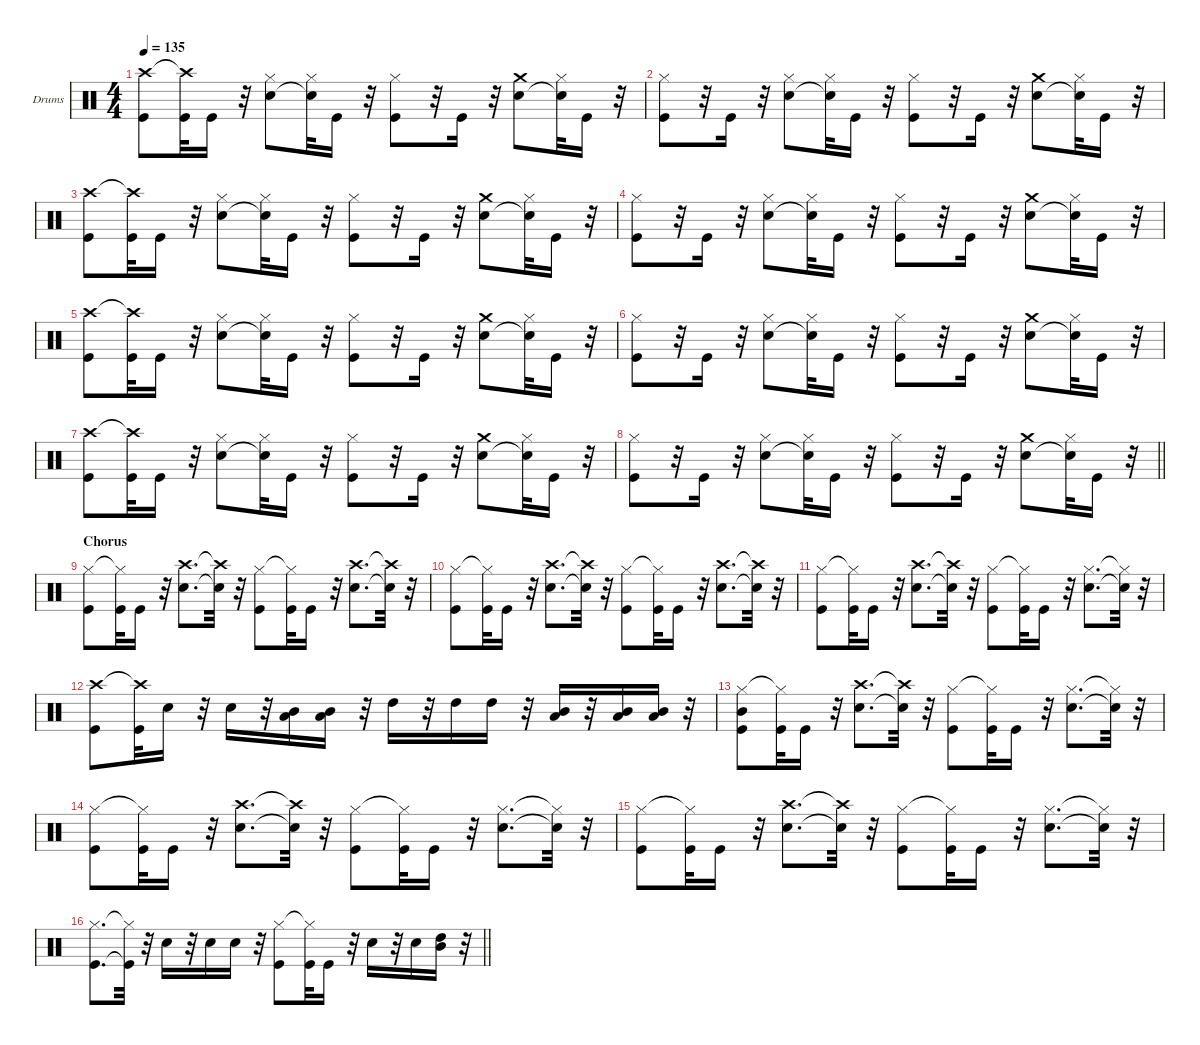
\hideDynamics
\bracketExtendMode groupsimilarinstruments
\firstSystemTrackNameOrientation horizontal
\otherSystemsTrackNameOrientation horizontal
\track ("Drumkit" "Drums") {solo instrument percussion}
\staff {score}
\articulation defaults
\ts (4 4)
\tempo 135
\clef neutral
\scale
0.333333
\ks c
("Crash high (hit)" "Kick (hit)").8{dy fff} ("Crash high (hit)"{t} "Kick (hit)").32 "Kick (hit)".16 r.32 ("Hi-Hat (closed)" "Snare (hit) 2").8 ("Hi-Hat (closed)" "Snare (hit) 2"{t}).32 "Kick (hit)".16 r.32 ("Hi-Hat (closed)" "Kick (hit)").8 r.32 "Kick (hit)".16 r.32 ("Crash medium (hit)" "Snare (hit) 2").8 ("Hi-Hat (closed)" "Snare (hit) 2"{t}).32 "Kick (hit)".16 r.32 |
\scale
0.333333 ("Kick (hit)" "Hi-Hat (closed)").8 r.32 "Kick (hit)".16 r.32 ("Hi-Hat (closed)" "Snare (hit) 2").8 ("Hi-Hat (closed)" "Snare (hit) 2"{t}).32 "Kick (hit)".16 r.32 ("Hi-Hat (closed)" "Kick (hit)").8 r.32 "Kick (hit)".16 r.32 ("Crash medium (hit)" "Snare (hit) 2").8 ("Hi-Hat (closed)" "Snare (hit) 2"{t}).32 "Kick (hit)".16 r.32 |
\scale
0.333333 ("Crash high (hit)" "Kick (hit)").8 ("Crash high (hit)"{t} "Kick (hit)").32 "Kick (hit)".16 r.32 ("Hi-Hat (closed)" "Snare (hit) 2").8 ("Hi-Hat (closed)" "Snare (hit) 2"{t}).32 "Kick (hit)".16 r.32 ("Hi-Hat (closed)" "Kick (hit)").8 r.32 "Kick (hit)".16 r.32 ("Crash medium (hit)" "Snare (hit) 2").8 ("Hi-Hat (closed)" "Snare (hit) 2"{t}).32 "Kick (hit)".16 r.32 |
\scale
0.333333 ("Kick (hit)" "Hi-Hat (closed)").8 r.32 "Kick (hit)".16 r.32 ("Hi-Hat (closed)" "Snare (hit) 2").8 ("Hi-Hat (closed)" "Snare (hit) 2"{t}).32 "Kick (hit)".16 r.32 ("Hi-Hat (closed)" "Kick (hit)").8 r.32 "Kick (hit)".16 r.32 ("Crash medium (hit)" "Snare (hit) 2").8 ("Hi-Hat (closed)" "Snare (hit) 2"{t}).32 "Kick (hit)".16 r.32 |
\scale
0.333333 ("Crash high (hit)" "Kick (hit)").8 ("Crash high (hit)"{t} "Kick (hit)").32 "Kick (hit)".16 r.32 ("Hi-Hat (closed)" "Snare (hit) 2").8 ("Hi-Hat (closed)" "Snare (hit) 2"{t}).32 "Kick (hit)".16 r.32 ("Hi-Hat (closed)" "Kick (hit)").8 r.32 "Kick (hit)".16 r.32 ("Crash medium (hit)" "Snare (hit) 2").8 ("Hi-Hat (closed)" "Snare (hit) 2"{t}).32 "Kick (hit)".16 r.32 |
\scale
0.333333 ("Kick (hit)" "Hi-Hat (closed)").8 r.32 "Kick (hit)".16 r.32 ("Hi-Hat (closed)" "Snare (hit) 2").8 ("Hi-Hat (closed)" "Snare (hit) 2"{t}).32 "Kick (hit)".16 r.32 ("Hi-Hat (closed)" "Kick (hit)").8 r.32 "Kick (hit)".16 r.32 ("Crash medium (hit)" "Snare (hit) 2").8 ("Hi-Hat (closed)" "Snare (hit) 2"{t}).32 "Kick (hit)".16 r.32 |
\scale
0.333333 ("Crash high (hit)" "Kick (hit)").8 ("Crash high (hit)"{t} "Kick (hit)").32 "Kick (hit)".16 r.32 ("Hi-Hat (closed)" "Snare (hit) 2").8 ("Hi-Hat (closed)" "Snare (hit) 2"{t}).32 "Kick (hit)".16 r.32 ("Hi-Hat (closed)" "Kick (hit)").8 r.32 "Kick (hit)".16 r.32 ("Crash medium (hit)" "Snare (hit) 2").8 ("Hi-Hat (closed)" "Snare (hit) 2"{t}).32 "Kick (hit)".16 r.32 |
\scale
0.333333
\barLineRight lightlight
("Kick (hit)" "Hi-Hat (closed)").8 r.32 "Kick (hit)".16 r.32 ("Hi-Hat (closed)" "Snare (hit) 2").8 ("Hi-Hat (closed)" "Snare (hit) 2"{t}).32 "Kick (hit)".16 r.32 ("Hi-Hat (closed)" "Kick (hit)").8 r.32 "Kick (hit)".16 r.32 ("Crash medium (hit)" "Snare (hit) 2").8 ("Hi-Hat (closed)" "Snare (hit) 2"{t}).32 "Kick (hit)".16 r.32 |
\section ("" "Chorus")
\scale
0.333333 ("Kick (hit)" "Hi-Hat (closed)").8 ("Kick (hit)" "Hi-Hat (closed)"{t}).32 "Kick (hit)".16 r.32 ("Crash high (hit)" "Snare (hit) 2").8{d} ("Crash high (hit)"{t} "Snare (hit) 2"{t}).32 r.32 ("Kick (hit)" "Hi-Hat (closed)").8 ("Kick (hit)" "Hi-Hat (closed)"{t}).32 "Kick (hit)".16 r.32 ("Crash high (hit)" "Snare (hit) 2").8{d} ("Crash high (hit)"{t} "Snare (hit) 2"{t}).32 r.32 |
\scale
0.333333 ("Kick (hit)" "Hi-Hat (closed)").8 ("Kick (hit)" "Hi-Hat (closed)"{t}).32 "Kick (hit)".16 r.32 ("Crash high (hit)" "Snare (hit) 2").8{d} ("Crash high (hit)"{t} "Snare (hit) 2"{t}).32 r.32 ("Kick (hit)" "Hi-Hat (closed)").8 ("Kick (hit)" "Hi-Hat (closed)"{t}).32 "Kick (hit)".16 r.32 ("Crash high (hit)" "Snare (hit) 2").8{d} ("Crash high (hit)"{t} "Snare (hit) 2"{t}).32 r.32 |
\scale
0.333333 ("Kick (hit)" "Hi-Hat (closed)").8 ("Kick (hit)" "Hi-Hat (closed)"{t}).32 "Kick (hit)".16 r.32 ("Crash high (hit)" "Snare (hit) 2").8{d} ("Crash high (hit)"{t} "Snare (hit) 2"{t}).32 r.32 ("Kick (hit)" "Hi-Hat (closed)").8 ("Kick (hit)" "Hi-Hat (closed)"{t}).32 "Kick (hit)".16 r.32 ("Snare (hit) 2" "Hi-Hat (closed)").8{d} ("Snare (hit) 2"{t} "Hi-Hat (closed)"{t}).32 r.32 |
\scale
0.333333 ("Crash high (hit)" "Kick (hit)").8 ("Crash high (hit)"{t} "Kick (hit)").32 "Snare (hit) 2".16 r.32 "Snare (hit) 2".16 r.32 ("Mid Tom (hit)" "Low Tom (hit)").16 ("Mid Tom (hit)" "Low Tom (hit)").16 r.32 "High Tom (hit)".16 r.32 "High Tom (hit)".16 "High Tom (hit)".16 r.32 ("Mid Tom (hit)" "Low Tom (hit)").16 r.32 ("Mid Tom (hit)" "Low Tom (hit)").16 ("Low Tom (hit)" "Mid Tom (hit)").16 r.32 |
\scale
0.333333 ("Kick (hit)" "Hi-Hat (closed)" "Mid Tom (hit)").8 ("Kick (hit)" "Hi-Hat (closed)"{t}).32 "Kick (hit)".16 r.32 ("Crash high (hit)" "Snare (hit) 2").8{d} ("Crash high (hit)"{t} "Snare (hit) 2"{t}).32 r.32 ("Kick (hit)" "Hi-Hat (closed)").8 ("Kick (hit)" "Hi-Hat (closed)"{t}).32 "Kick (hit)".16 r.32 ("Snare (hit) 2" "Hi-Hat (closed)").8{d} ("Snare (hit) 2"{t} "Hi-Hat (closed)"{t}).32 r.32 |
\scale
0.333333 ("Kick (hit)" "Hi-Hat (closed)").8 ("Kick (hit)" "Hi-Hat (closed)"{t}).32 "Kick (hit)".16 r.32 ("Crash high (hit)" "Snare (hit) 2").8{d} ("Crash high (hit)"{t} "Snare (hit) 2"{t}).32 r.32 ("Kick (hit)" "Hi-Hat (closed)").8 ("Kick (hit)" "Hi-Hat (closed)"{t}).32 "Kick (hit)".16 r.32 ("Snare (hit) 2" "Hi-Hat (closed)").8{d} ("Snare (hit) 2"{t} "Hi-Hat (closed)"{t}).32 r.32 |
\scale
0.333333 ("Kick (hit)" "Hi-Hat (closed)").8 ("Kick (hit)" "Hi-Hat (closed)"{t}).32 "Kick (hit)".16 r.32 ("Crash high (hit)" "Snare (hit) 2").8{d} ("Crash high (hit)"{t} "Snare (hit) 2"{t}).32 r.32 ("Kick (hit)" "Hi-Hat (closed)").8 ("Kick (hit)" "Hi-Hat (closed)"{t}).32 "Kick (hit)".16 r.32 ("Snare (hit) 2" "Hi-Hat (closed)").8{d} ("Snare (hit) 2"{t} "Hi-Hat (closed)"{t}).32 r.32 |
\scale
0.333333
\barLineRight lightlight
("Hi-Hat (closed)" "Kick (hit)").8{d} ("Hi-Hat (closed)"{t} "Kick (hit)"{t}).32 r.32 "Snare (hit) 2".16 r.32 "Snare (hit) 2".16 "Snare (hit) 2".16 r.32 ("Hi-Hat (closed)" "Kick (hit)").8 ("Hi-Hat (closed)"{t} "Kick (hit)").32 "Kick (hit)".16 r.32 "Snare (hit) 2".16 r.32 "Snare (hit) 2".16 ("Mid Tom (hit)" "High Tom (hit)").16 r.32
